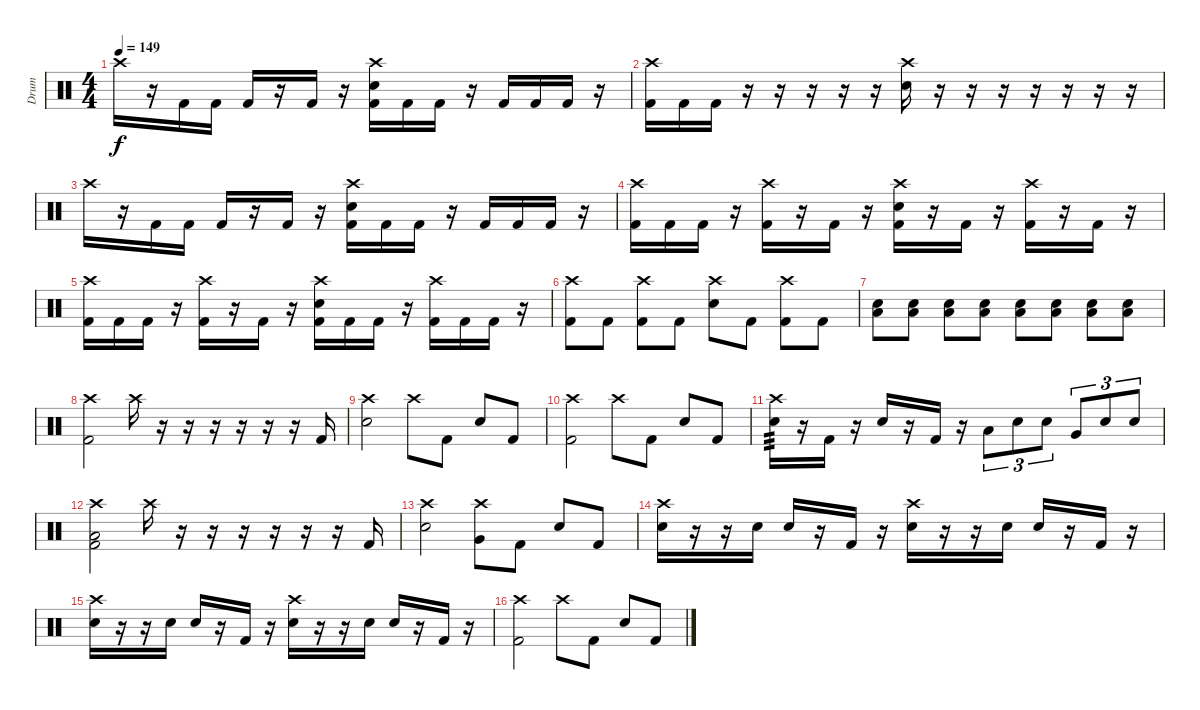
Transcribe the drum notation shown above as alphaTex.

\track ("Drum" "Drum") {instrument percussion}
\staff {score}
\articulation defaults
\ts (4 4)
\tempo 149
\clef neutral
\ks c "Crash high (hit)".16{dy f}
r.16 "Kick (hit) 2".16 "Kick (hit) 2".16 "Kick (hit) 2".16 r.16 "Kick (hit) 2".16 r.16 ("Crash high (hit)" "Electric Snare (hit)" "Kick (hit) 2").16 "Kick (hit) 2".16 "Kick (hit) 2".16 r.16 "Kick (hit) 2".16 "Kick (hit) 2".16 "Kick (hit) 2".16 r.16 |
("Crash high (hit)" "Kick (hit) 2").16 "Kick (hit) 2".16 "Kick (hit) 2".16 r.16 r.16 r.16 r.16 r.16 ("Crash high (hit)" "Electric Snare (hit)").16 r.16 r.16 r.16 r.16 r.16 r.16 r.16 |
"Crash high (hit)".16 r.16 "Kick (hit) 2".16 "Kick (hit) 2".16 "Kick (hit) 2".16 r.16 "Kick (hit) 2".16 r.16 ("Crash high (hit)" "Electric Snare (hit)" "Kick (hit) 2").16 "Kick (hit) 2".16 "Kick (hit) 2".16 r.16 "Kick (hit) 2".16 "Kick (hit) 2".16 "Kick (hit) 2".16 r.16 |
("Crash high (hit)" "Kick (hit) 2").16 "Kick (hit) 2".16 "Kick (hit) 2".16 r.16 ("Crash high (hit)" "Kick (hit) 2").16 r.16 "Kick (hit) 2".16 r.16 ("Crash high (hit)" "Electric Snare (hit)" "Kick (hit) 2").16 r.16 "Kick (hit) 2".16 r.16 ("Crash high (hit)" "Kick (hit) 2").16 r.16 "Kick (hit) 2".16 r.16 |
("Crash high (hit)" "Kick (hit) 2").16 "Kick (hit) 2".16 "Kick (hit) 2".16 r.16 ("Crash high (hit)" "Kick (hit) 2").16 r.16 "Kick (hit) 2".16 r.16 ("Crash high (hit)" "Electric Snare (hit)" "Kick (hit) 2").16 "Kick (hit) 2".16 "Kick (hit) 2".16 r.16 ("Crash high (hit)" "Kick (hit) 2").16 "Kick (hit) 2".16 "Kick (hit) 2".16 r.16 |
("Crash high (hit)" "Kick (hit) 2").8 "Kick (hit) 2".8 ("Crash high (hit)" "Kick (hit) 2").8 "Kick (hit) 2".8 ("Crash high (hit)" "Electric Snare (hit)").8 "Kick (hit) 2".8 ("Crash high (hit)" "Kick (hit) 2").8 "Kick (hit) 2".8 |
("Low Floor Tom (hit)" "Electric Snare (hit)").8 ("Low Floor Tom (hit)" "Electric Snare (hit)").8 ("Low Floor Tom (hit)" "Electric Snare (hit)").8 ("Low Floor Tom (hit)" "Electric Snare (hit)").8 ("Low Floor Tom (hit)" "Electric Snare (hit)").8 ("Low Floor Tom (hit)" "Electric Snare (hit)").8 ("Low Floor Tom (hit)" "Electric Snare (hit)").8 ("Low Floor Tom (hit)" "Electric Snare (hit)").8 |
("Crash high (hit)" "Kick (hit) 2").2 "Crash high (hit)".16 r.16 r.16 r.16 r.16 r.16 r.16 "Kick (hit) 2".16 |
("Crash high (hit)" "Electric Snare (hit)").2 "Crash high (hit)".8 "Kick (hit) 2".8 "Electric Snare (hit)".8 "Kick (hit) 2".8 |
("Crash high (hit)" "Kick (hit) 2").2 "Crash high (hit)".8 "Kick (hit) 2".8 "Electric Snare (hit)".8 "Kick (hit) 2".8 |
("Crash high (hit)" "Electric Snare (hit)").16{tp 3} r.16 "Kick (hit) 2".16 r.16 "Electric Snare (hit)".16 r.16 "Kick (hit) 2".16 r.16 "Low Tom (hit)".8{tu (3 2)} "Electric Snare (hit)".8{tu (3 2)} "Electric Snare (hit)".8{tu (3 2)} "Very Low Tom (hit)".8{tu (3 2)} "Electric Snare (hit)".8{tu (3 2)} "Electric Snare (hit)".8{tu (3 2)} |
("Crash high (hit)" "Low Floor Tom (hit)" "Kick (hit) 2").2 "Crash high (hit)".16 r.16 r.16 r.16 r.16 r.16 r.16 "Kick (hit) 2".16 |
("Crash high (hit)" "Electric Snare (hit)").2 ("Crash high (hit)" "Very Low Tom (hit)").8 "Kick (hit) 2".8 "Electric Snare (hit)".8 "Kick (hit) 2".8 |
("Crash high (hit)" "Electric Snare (hit)").16 r.16 r.16 "Electric Snare (hit)".16 "Electric Snare (hit)".16 r.16 "Kick (hit) 2".16 r.16 ("Crash high (hit)" "Electric Snare (hit)").16 r.16 r.16 "Electric Snare (hit)".16 "Electric Snare (hit)".16 r.16 "Kick (hit) 2".16 r.16 |
("Crash high (hit)" "Electric Snare (hit)").16 r.16 r.16 "Electric Snare (hit)".16 "Electric Snare (hit)".16 r.16 "Kick (hit) 2".16 r.16 ("Crash high (hit)" "Electric Snare (hit)").16 r.16 r.16 "Electric Snare (hit)".16 "Electric Snare (hit)".16 r.16 "Kick (hit) 2".16 r.16 |
("Crash high (hit)" "Kick (hit) 2").2 "Crash high (hit)".8 "Kick (hit) 2".8 "Electric Snare (hit)".8 "Kick (hit) 2".8
